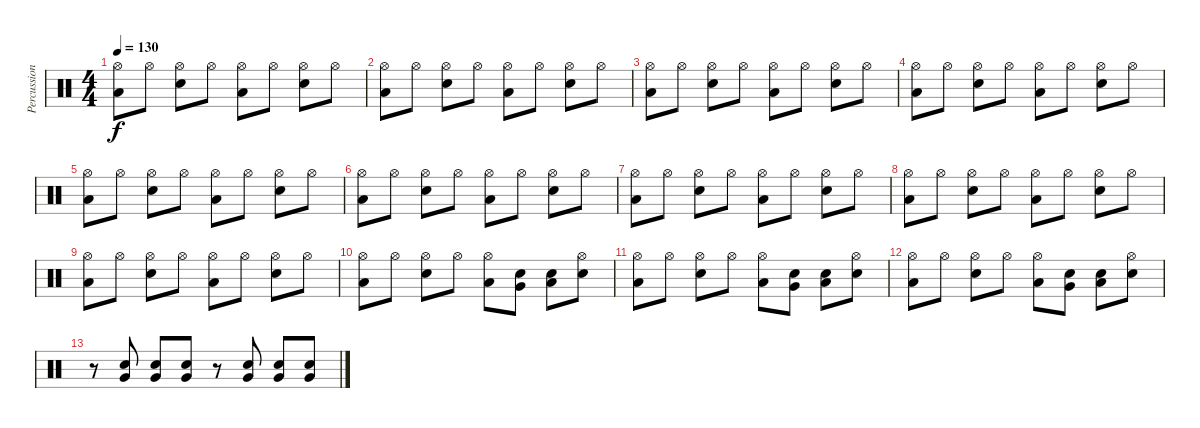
\track ("Percussion" "Percussion") {instrument percussion}
\staff {score}
\articulation defaults
\ts (4 4)
\tempo 130
\clef neutral
\ks c
("Hi-Hat (open)" "Low Floor Tom (hit)").8{dy f} "Hi-Hat (open)".8 ("Hi-Hat (open)" "Snare (hit) 2").8 "Hi-Hat (open)".8 ("Hi-Hat (open)" "Low Floor Tom (hit)").8 "Hi-Hat (open)".8 ("Hi-Hat (open)" "Snare (hit) 2").8 "Hi-Hat (open)".8 |
("Hi-Hat (open)" "Low Floor Tom (hit)").8 "Hi-Hat (open)".8 ("Hi-Hat (open)" "Snare (hit) 2").8 "Hi-Hat (open)".8 ("Hi-Hat (open)" "Low Floor Tom (hit)").8 "Hi-Hat (open)".8 ("Hi-Hat (open)" "Snare (hit) 2").8 "Hi-Hat (open)".8 |
("Hi-Hat (open)" "Low Floor Tom (hit)").8 "Hi-Hat (open)".8 ("Hi-Hat (open)" "Snare (hit) 2").8 "Hi-Hat (open)".8 ("Hi-Hat (open)" "Low Floor Tom (hit)").8 "Hi-Hat (open)".8 ("Hi-Hat (open)" "Snare (hit) 2").8 "Hi-Hat (open)".8 |
("Hi-Hat (open)" "Low Floor Tom (hit)").8 "Hi-Hat (open)".8 ("Hi-Hat (open)" "Snare (hit) 2").8 "Hi-Hat (open)".8 ("Hi-Hat (open)" "Low Floor Tom (hit)").8 "Hi-Hat (open)".8 ("Hi-Hat (open)" "Snare (hit) 2").8 "Hi-Hat (open)".8 |
("Hi-Hat (open)" "Low Floor Tom (hit)").8 "Hi-Hat (open)".8 ("Hi-Hat (open)" "Snare (hit) 2").8 "Hi-Hat (open)".8 ("Hi-Hat (open)" "Low Floor Tom (hit)").8 "Hi-Hat (open)".8 ("Hi-Hat (open)" "Snare (hit) 2").8 "Hi-Hat (open)".8 |
("Hi-Hat (open)" "Low Floor Tom (hit)").8 "Hi-Hat (open)".8 ("Hi-Hat (open)" "Snare (hit) 2").8 "Hi-Hat (open)".8 ("Hi-Hat (open)" "Low Floor Tom (hit)").8 "Hi-Hat (open)".8 ("Hi-Hat (open)" "Snare (hit) 2").8 "Hi-Hat (open)".8 |
("Hi-Hat (open)" "Low Floor Tom (hit)").8 "Hi-Hat (open)".8 ("Hi-Hat (open)" "Snare (hit) 2").8 "Hi-Hat (open)".8 ("Hi-Hat (open)" "Low Floor Tom (hit)").8 "Hi-Hat (open)".8 ("Hi-Hat (open)" "Snare (hit) 2").8 "Hi-Hat (open)".8 |
("Hi-Hat (open)" "Low Floor Tom (hit)").8 "Hi-Hat (open)".8 ("Hi-Hat (open)" "Snare (hit) 2").8 "Hi-Hat (open)".8 ("Hi-Hat (open)" "Low Floor Tom (hit)").8 "Hi-Hat (open)".8 ("Hi-Hat (open)" "Snare (hit) 2").8 "Hi-Hat (open)".8 |
("Hi-Hat (open)" "Low Floor Tom (hit)").8 "Hi-Hat (open)".8 ("Hi-Hat (open)" "Snare (hit) 2").8 "Hi-Hat (open)".8 ("Hi-Hat (open)" "Low Floor Tom (hit)").8 "Hi-Hat (open)".8 ("Hi-Hat (open)" "Snare (hit) 2").8 "Hi-Hat (open)".8 |
("Hi-Hat (open)" "Low Floor Tom (hit)").8 "Hi-Hat (open)".8 ("Hi-Hat (open)" "Snare (hit) 2").8 "Hi-Hat (open)".8 ("Hi-Hat (open)" "Low Floor Tom (hit)").8 ("Snare (hit) 2" "Very Low Tom (hit)").8 ("Snare (hit) 2" "Low Floor Tom (hit)").8 ("Hi-Hat (open)" "Snare (hit) 2").8 |
("Hi-Hat (open)" "Low Floor Tom (hit)").8 "Hi-Hat (open)".8 ("Hi-Hat (open)" "Snare (hit) 2").8 "Hi-Hat (open)".8 ("Hi-Hat (open)" "Low Floor Tom (hit)").8 ("Snare (hit) 2" "Very Low Tom (hit)").8 ("Snare (hit) 2" "Low Floor Tom (hit)").8 ("Hi-Hat (open)" "Snare (hit) 2").8 |
("Hi-Hat (open)" "Low Floor Tom (hit)").8 "Hi-Hat (open)".8 ("Hi-Hat (open)" "Snare (hit) 2").8 "Hi-Hat (open)".8 ("Hi-Hat (open)" "Low Floor Tom (hit)").8 ("Snare (hit) 2" "Very Low Tom (hit)").8 ("Snare (hit) 2" "Low Floor Tom (hit)").8 ("Hi-Hat (open)" "Snare (hit) 2").8 |
r.8 ("Snare (hit) 2" "Very Low Tom (hit)").8 ("Snare (hit) 2" "Very Low Tom (hit)").8 ("Snare (hit) 2" "Very Low Tom (hit)").8 r.8 ("Snare (hit) 2" "Very Low Tom (hit)").8 ("Snare (hit) 2" "Very Low Tom (hit)").8 ("Snare (hit) 2" "Very Low Tom (hit)").8
